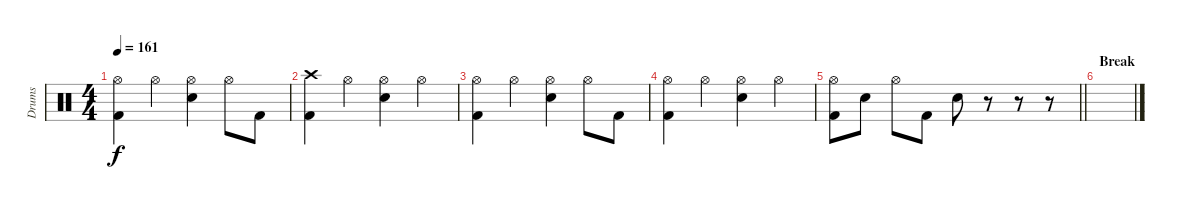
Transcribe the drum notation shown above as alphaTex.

\track ("Drums" "Drums") {instrument percussion}
\staff {score}
\articulation defaults
\ts (4 4)
\tempo 161
\clef neutral
\ks c
("Hi-Hat (open)" "Kick (hit) 2").4{dy f} "Hi-Hat (open)".4 ("Hi-Hat (open)" "Snare (hit) 2").4 "Hi-Hat (open)".8 "Kick (hit) 2".8 |
("Crash high (hit)" "Kick (hit) 2").4 "Hi-Hat (open)".4 ("Hi-Hat (open)" "Snare (hit) 2").4 "Hi-Hat (open)".4 |
("Hi-Hat (open)" "Kick (hit) 2").4 "Hi-Hat (open)".4 ("Hi-Hat (open)" "Snare (hit) 2").4 "Hi-Hat (open)".8 "Kick (hit) 2".8 |
("Hi-Hat (open)" "Kick (hit) 2").4 "Hi-Hat (open)".4 ("Hi-Hat (open)" "Snare (hit) 2").4 "Hi-Hat (open)".4 |
\barLineRight lightlight
("Hi-Hat (open)" "Kick (hit) 2").8 "Snare (hit) 2".8 "Hi-Hat (open)".8 "Kick (hit) 2".8 "Snare (hit) 2".8 r.8 r.8 r.8 |
\section ("" "Break")
